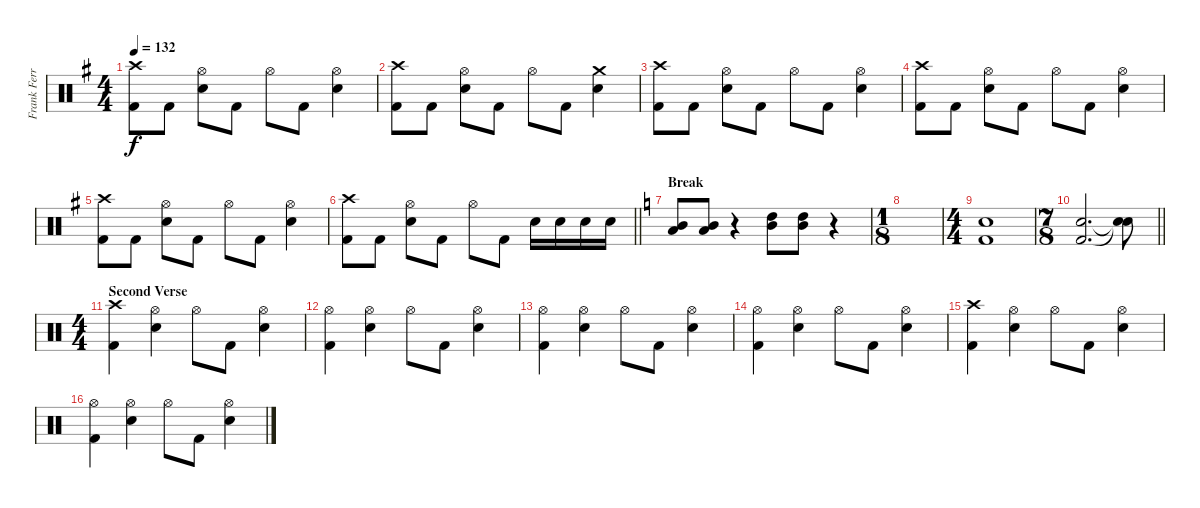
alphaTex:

\track ("Frank Ferrer" "Frank Ferr") {instrument percussion}
\staff {score}
\articulation defaults
\ts (4 4)
\tempo 132
\clef neutral
\ks g
("Crash high (hit)" "Kick (hit) 2").8{dy f} "Kick (hit) 2".8 ("Hi-Hat (open)" "Electric Snare (hit)").8 "Kick (hit) 2".8 "Hi-Hat (open)".8 "Kick (hit) 2".8 ("Hi-Hat (open)" "Electric Snare (hit)").4 |
("Crash high (hit)" "Kick (hit) 2").8 "Kick (hit) 2".8 ("Hi-Hat (open)" "Electric Snare (hit)").8 "Kick (hit) 2".8 "Hi-Hat (open)".8 "Kick (hit) 2".8 ("Crash medium (hit)" "Electric Snare (hit)").4 |
("Crash high (hit)" "Kick (hit) 2").8 "Kick (hit) 2".8 ("Hi-Hat (open)" "Electric Snare (hit)").8 "Kick (hit) 2".8 "Hi-Hat (open)".8 "Kick (hit) 2".8 ("Hi-Hat (open)" "Electric Snare (hit)").4 |
("Crash high (hit)" "Kick (hit) 2").8 "Kick (hit) 2".8 ("Hi-Hat (open)" "Electric Snare (hit)").8 "Kick (hit) 2".8 "Hi-Hat (open)".8 "Kick (hit) 2".8 ("Hi-Hat (open)" "Electric Snare (hit)").4 |
("Crash high (hit)" "Kick (hit) 2").8 "Kick (hit) 2".8 ("Hi-Hat (open)" "Electric Snare (hit)").8 "Kick (hit) 2".8 "Hi-Hat (open)".8 "Kick (hit) 2".8 ("Hi-Hat (open)" "Electric Snare (hit)").4 |
\barLineRight lightlight
("Crash high (hit)" "Kick (hit) 2").8 "Kick (hit) 2".8 ("Hi-Hat (open)" "Electric Snare (hit)").8 "Kick (hit) 2".8 "Hi-Hat (open)".8 "Kick (hit) 2".8 "Electric Snare (hit)".16 "Electric Snare (hit)".16 "Electric Snare (hit)".16 "Electric Snare (hit)".16 |
\section ("" "Break")
\ks c
("Low Tom (hit)" "Mid Tom (hit)").8 ("Low Tom (hit)" "Mid Tom (hit)").8 r.4 ("High Tom (hit)" "Mid Tom (hit)").8 ("High Tom (hit)" "Mid Tom (hit)").8 r.4 |
\ts (1 8)
|
\ts (4 4)
("Electric Snare (hit)" "Kick (hit) 2").1 |
\ts (7 8)
\barLineRight lightlight
("Electric Snare (hit)" "Kick (hit) 2").2{d} ("Snare (hit)"{t} "Snare (hit)"{t}).8 |
\ts (4 4)
\section ("" "Second Verse")
("Crash high (hit)" "Kick (hit) 2").4 ("Hi-Hat (open)" "Electric Snare (hit)").4 "Hi-Hat (open)".8 "Kick (hit) 2".8 ("Hi-Hat (open)" "Electric Snare (hit)").4 |
("Hi-Hat (open)" "Kick (hit) 2").4 ("Hi-Hat (open)" "Electric Snare (hit)").4 "Hi-Hat (open)".8 "Kick (hit) 2".8 ("Hi-Hat (open)" "Electric Snare (hit)").4 |
("Hi-Hat (open)" "Kick (hit) 2").4 ("Hi-Hat (open)" "Electric Snare (hit)").4 "Hi-Hat (open)".8 "Kick (hit) 2".8 ("Hi-Hat (open)" "Electric Snare (hit)").4 |
("Hi-Hat (open)" "Kick (hit) 2").4 ("Hi-Hat (open)" "Electric Snare (hit)").4 "Hi-Hat (open)".8 "Kick (hit) 2".8 ("Hi-Hat (open)" "Electric Snare (hit)").4 |
("Crash high (hit)" "Kick (hit) 2").4 ("Hi-Hat (open)" "Electric Snare (hit)").4 "Hi-Hat (open)".8 "Kick (hit) 2".8 ("Hi-Hat (open)" "Electric Snare (hit)").4 |
("Hi-Hat (open)" "Kick (hit) 2").4 ("Hi-Hat (open)" "Electric Snare (hit)").4 "Hi-Hat (open)".8 "Kick (hit) 2".8 ("Hi-Hat (open)" "Electric Snare (hit)").4
